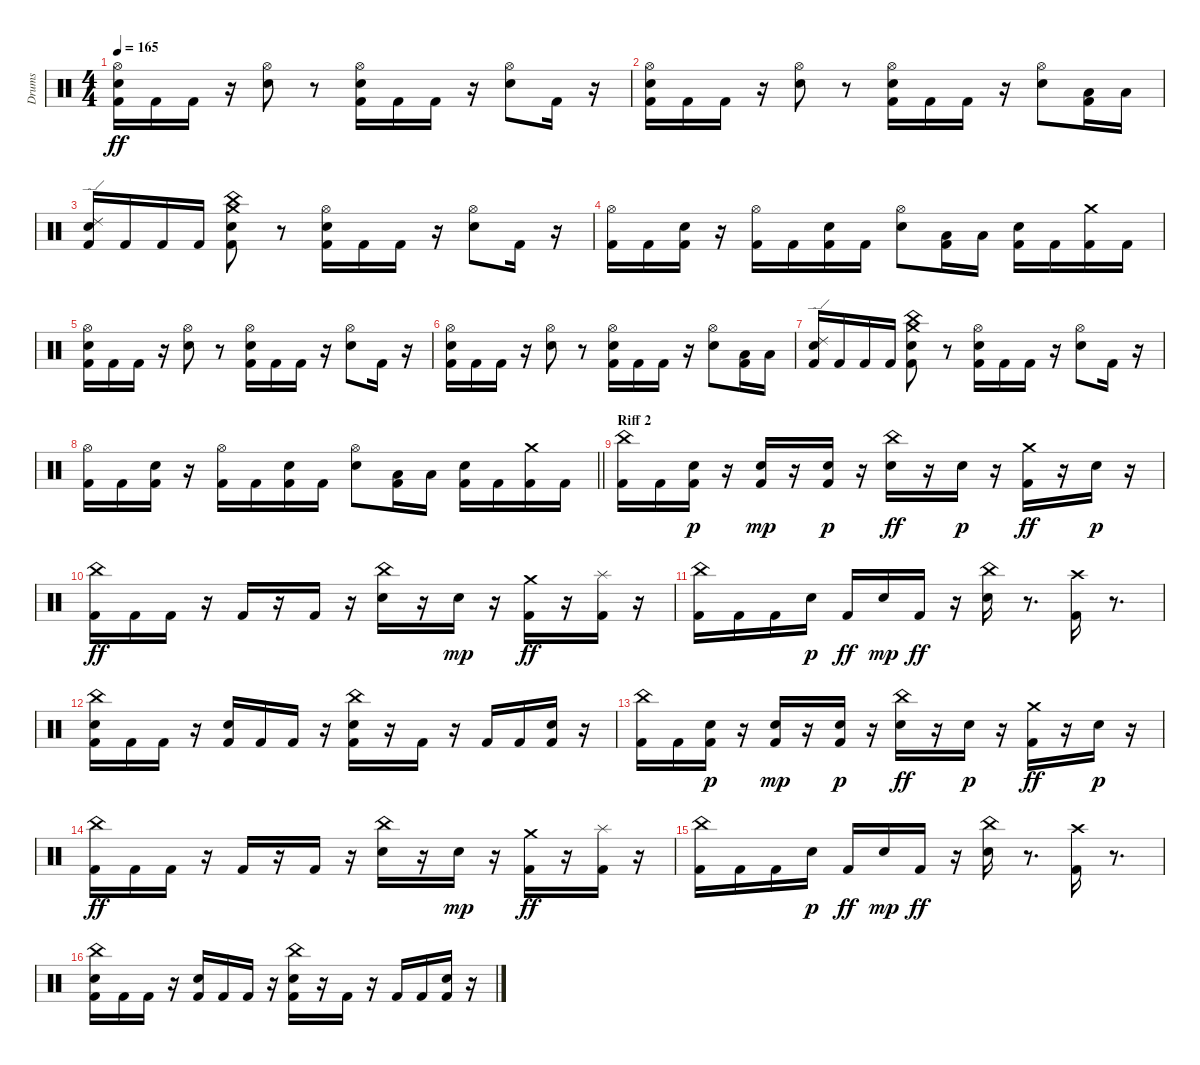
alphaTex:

\track ("Drums" "Drums") {instrument percussion}
\staff {score}
\articulation defaults
\ts (4 4)
\tempo 165
\clef neutral
\ks c
("Kick (hit) 2" "Snare (hit) 2" "Hi-Hat (open)").16{dy ff} "Kick (hit) 2".16 "Kick (hit) 2".16 r.16 ("Snare (hit) 2" "Hi-Hat (open)").8 r.8 ("Kick (hit) 2" "Snare (hit) 2" "Hi-Hat (open)").16 "Kick (hit) 2".16 "Kick (hit) 2".16 r.16 ("Snare (hit) 2" "Hi-Hat (open)").8 "Kick (hit) 2".16 r.16 |
("Kick (hit) 2" "Snare (hit) 2" "Hi-Hat (open)").16 "Kick (hit) 2".16 "Kick (hit) 2".16 r.16 ("Snare (hit) 2" "Hi-Hat (open)").8 r.8 ("Kick (hit) 2" "Snare (hit) 2" "Hi-Hat (open)").16 "Kick (hit) 2".16 "Kick (hit) 2".16 r.16 ("Snare (hit) 2" "Hi-Hat (open)").8 ("Kick (hit) 2" "Low Tom (hit)").16 "Low Floor Tom (hit)".16 |
("Kick (hit) 2" "Snare (hit) 2" "Ride (edge) 2").16 "Kick (hit) 2".16 "Kick (hit) 2".16 "Kick (hit) 2".16 ("Kick (hit) 2" "Snare (hit) 2" "Crash medium (hit)" "China (hit)").8 r.8 ("Kick (hit) 2" "Snare (hit) 2" "Hi-Hat (open)").16 "Kick (hit) 2".16 "Kick (hit) 2".16 r.16 ("Snare (hit) 2" "Hi-Hat (open)").8 "Kick (hit) 2".16 r.16 |
("Kick (hit) 2" "Hi-Hat (open)").16 "Kick (hit) 2".16 ("Kick (hit) 2" "Snare (hit) 2").16 r.16 ("Kick (hit) 2" "Hi-Hat (open)").16 "Kick (hit) 2".16 ("Kick (hit) 2" "Snare (hit) 2").16 "Kick (hit) 2".16 ("Snare (hit) 2" "Hi-Hat (open)").8 ("Kick (hit) 2" "Low Tom (hit)").16 "Low Tom (hit)".16 ("Kick (hit) 2" "Snare (hit) 2").16 "Kick (hit) 2".16 ("Kick (hit) 2" "Crash medium (hit)").16 "Kick (hit) 2".16 |
("Kick (hit) 2" "Snare (hit) 2" "Hi-Hat (open)").16 "Kick (hit) 2".16 "Kick (hit) 2".16 r.16 ("Snare (hit) 2" "Hi-Hat (open)").8 r.8 ("Kick (hit) 2" "Snare (hit) 2" "Hi-Hat (open)").16 "Kick (hit) 2".16 "Kick (hit) 2".16 r.16 ("Snare (hit) 2" "Hi-Hat (open)").8 "Kick (hit) 2".16 r.16 |
("Kick (hit) 2" "Snare (hit) 2" "Hi-Hat (open)").16 "Kick (hit) 2".16 "Kick (hit) 2".16 r.16 ("Snare (hit) 2" "Hi-Hat (open)").8 r.8 ("Kick (hit) 2" "Snare (hit) 2" "Hi-Hat (open)").16 "Kick (hit) 2".16 "Kick (hit) 2".16 r.16 ("Snare (hit) 2" "Hi-Hat (open)").8 ("Kick (hit) 2" "Low Tom (hit)").16 "Low Floor Tom (hit)".16 |
("Kick (hit) 2" "Snare (hit) 2" "Ride (edge) 2").16 "Kick (hit) 2".16 "Kick (hit) 2".16 "Kick (hit) 2".16 ("Kick (hit) 2" "Snare (hit) 2" "Crash medium (hit)" "China (hit)").8 r.8 ("Kick (hit) 2" "Snare (hit) 2" "Hi-Hat (open)").16 "Kick (hit) 2".16 "Kick (hit) 2".16 r.16 ("Snare (hit) 2" "Hi-Hat (open)").8 "Kick (hit) 2".16 r.16 |
\barLineRight lightlight
("Kick (hit) 2" "Hi-Hat (open)").16 "Kick (hit) 2".16 ("Kick (hit) 2" "Snare (hit) 2").16 r.16 ("Kick (hit) 2" "Hi-Hat (open)").16 "Kick (hit) 2".16 ("Kick (hit) 2" "Snare (hit) 2").16 "Kick (hit) 2".16 ("Snare (hit) 2" "Hi-Hat (open)").8 ("Kick (hit) 2" "Low Tom (hit)").16 "Low Tom (hit)".16 ("Kick (hit) 2" "Snare (hit) 2").16 "Kick (hit) 2".16 ("Kick (hit) 2" "Crash medium (hit)").16 "Kick (hit) 2".16 |
\section ("" "Riff 2")
("Kick (hit) 2" "China (hit)").16 "Kick (hit) 2".16 ("Kick (hit) 2" "Snare (hit) 2").16{dy p} r.16 ("Kick (hit) 2" "Snare (hit) 2").16{dy mp} r.16 ("Kick (hit) 2" "Snare (hit) 2").16{dy p} r.16 ("Snare (hit) 2" "China (hit)").16{dy ff} r.16 "Snare (hit) 2".16{dy p} r.16 ("Kick (hit) 2" "Crash medium (hit)").16{dy ff} r.16 "Snare (hit) 2".16{dy p} r.16 |
("Kick (hit) 2" "China (hit)").16{dy ff} "Kick (hit) 2".16 "Kick (hit) 2".16 r.16 "Kick (hit) 2".16 r.16 "Kick (hit) 2".16 r.16 ("Snare (hit) 2" "China (hit)").16 r.16 "Snare (hit) 2".16{dy mp} r.16 ("Kick (hit) 2" "Crash medium (hit)").16{dy ff} r.16 ("Kick (hit) 2" "Splash (hit)").16 r.16 |
("Kick (hit) 2" "China (hit)").16 "Kick (hit) 2".16 "Kick (hit) 2".16 "Snare (hit) 2".16{dy p} "Kick (hit) 2".16{dy ff} "Snare (hit) 2".16{dy mp} "Kick (hit) 2".16{dy ff} r.16 ("Snare (hit) 2" "China (hit)").16 r.8{d} ("Kick (hit) 2" "Crash high (hit)").16 r.8{d} |
("Kick (hit) 2" "Snare (hit) 2" "China (hit)").16 "Kick (hit) 2".16 "Kick (hit) 2".16 r.16 ("Kick (hit) 2" "Snare (hit) 2").16 "Kick (hit) 2".16 "Kick (hit) 2".16 r.16 ("Kick (hit) 2" "Snare (hit) 2" "China (hit)").16 r.16 "Kick (hit) 2".16 r.16 "Kick (hit) 2".16 "Kick (hit) 2".16 ("Kick (hit) 2" "Snare (hit) 2").16 r.16 |
("Kick (hit) 2" "China (hit)").16 "Kick (hit) 2".16 ("Kick (hit) 2" "Snare (hit) 2").16{dy p} r.16 ("Kick (hit) 2" "Snare (hit) 2").16{dy mp} r.16 ("Kick (hit) 2" "Snare (hit) 2").16{dy p} r.16 ("Snare (hit) 2" "China (hit)").16{dy ff} r.16 "Snare (hit) 2".16{dy p} r.16 ("Kick (hit) 2" "Crash medium (hit)").16{dy ff} r.16 "Snare (hit) 2".16{dy p} r.16 |
("Kick (hit) 2" "China (hit)").16{dy ff} "Kick (hit) 2".16 "Kick (hit) 2".16 r.16 "Kick (hit) 2".16 r.16 "Kick (hit) 2".16 r.16 ("Snare (hit) 2" "China (hit)").16 r.16 "Snare (hit) 2".16{dy mp} r.16 ("Kick (hit) 2" "Crash medium (hit)").16{dy ff} r.16 ("Kick (hit) 2" "Splash (hit)").16 r.16 |
("Kick (hit) 2" "China (hit)").16 "Kick (hit) 2".16 "Kick (hit) 2".16 "Snare (hit) 2".16{dy p} "Kick (hit) 2".16{dy ff} "Snare (hit) 2".16{dy mp} "Kick (hit) 2".16{dy ff} r.16 ("Snare (hit) 2" "China (hit)").16 r.8{d} ("Kick (hit) 2" "Crash high (hit)").16 r.8{d} |
("Kick (hit) 2" "Snare (hit) 2" "China (hit)").16 "Kick (hit) 2".16 "Kick (hit) 2".16 r.16 ("Kick (hit) 2" "Snare (hit) 2").16 "Kick (hit) 2".16 "Kick (hit) 2".16 r.16 ("Kick (hit) 2" "Snare (hit) 2" "China (hit)").16 r.16 "Kick (hit) 2".16 r.16 "Kick (hit) 2".16 "Kick (hit) 2".16 ("Kick (hit) 2" "Snare (hit) 2").16 r.16
